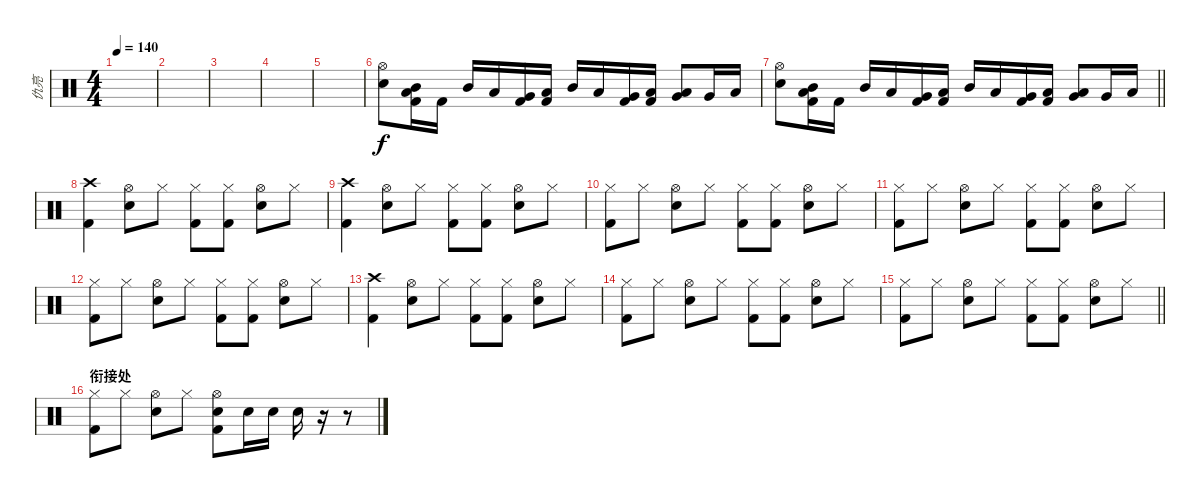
\track ("仇亮" "仇亮") {instrument percussion}
\staff {score}
\articulation defaults
\ts (4 4)
\tempo 140
\clef neutral
\ks c
|
|
|
|
|
("Hi-Hat (open)" "Electric Snare (hit)").8 ("Mid Tom (hit)" "Low Tom (hit)" "Kick (hit) 2").16 "Kick (hit) 2".16 "Mid Tom (hit)".16 "Low Tom (hit)".16 ("Very Low Tom (hit)" "Kick (hit) 2").16 ("Low Floor Tom (hit)" "Kick (hit) 2").16 "Mid Tom (hit)".16 "Low Tom (hit)".16 ("Very Low Tom (hit)" "Kick (hit) 2").16 ("Low Floor Tom (hit)" "Kick (hit) 2").16 ("Low Tom (hit)" "Very Low Tom (hit)").8 "Very Low Tom (hit)".16 "Low Floor Tom (hit)".16 |
\barLineRight lightlight
("Hi-Hat (open)" "Electric Snare (hit)").8 ("Mid Tom (hit)" "Low Tom (hit)" "Kick (hit) 2").16 "Kick (hit) 2".16 "Mid Tom (hit)".16 "Low Tom (hit)".16 ("Very Low Tom (hit)" "Kick (hit) 2").16 ("Low Floor Tom (hit)" "Kick (hit) 2").16 "Mid Tom (hit)".16 "Low Tom (hit)".16 ("Very Low Tom (hit)" "Kick (hit) 2").16 ("Low Floor Tom (hit)" "Kick (hit) 2").16 ("Low Tom (hit)" "Very Low Tom (hit)").8 "Very Low Tom (hit)".16 "Low Floor Tom (hit)".16 |
("Crash high (hit)" "Kick (hit) 2").4 ("Hi-Hat (open)" "Electric Snare (hit)").8 "Hi-Hat (closed)".8 ("Hi-Hat (closed)" "Kick (hit) 2").8 ("Hi-Hat (closed)" "Kick (hit) 2").8 ("Hi-Hat (open)" "Electric Snare (hit)").8 "Hi-Hat (closed)".8 |
("Crash high (hit)" "Kick (hit) 2").4 ("Hi-Hat (open)" "Electric Snare (hit)").8 "Hi-Hat (closed)".8 ("Hi-Hat (closed)" "Kick (hit) 2").8 ("Hi-Hat (closed)" "Kick (hit) 2").8 ("Hi-Hat (open)" "Electric Snare (hit)").8 "Hi-Hat (closed)".8 |
("Hi-Hat (closed)" "Kick (hit) 2").8 "Hi-Hat (closed)".8 ("Hi-Hat (open)" "Electric Snare (hit)").8 "Hi-Hat (closed)".8 ("Hi-Hat (closed)" "Kick (hit) 2").8 ("Hi-Hat (closed)" "Kick (hit) 2").8 ("Hi-Hat (open)" "Electric Snare (hit)").8 "Hi-Hat (closed)".8 |
("Hi-Hat (closed)" "Kick (hit) 2").8 "Hi-Hat (closed)".8 ("Hi-Hat (open)" "Electric Snare (hit)").8 "Hi-Hat (closed)".8 ("Hi-Hat (closed)" "Kick (hit) 2").8 ("Hi-Hat (closed)" "Kick (hit) 2").8 ("Hi-Hat (open)" "Electric Snare (hit)").8 "Hi-Hat (closed)".8 |
("Hi-Hat (closed)" "Kick (hit) 2").8 "Hi-Hat (closed)".8 ("Hi-Hat (open)" "Electric Snare (hit)").8 "Hi-Hat (closed)".8 ("Hi-Hat (closed)" "Kick (hit) 2").8 ("Hi-Hat (closed)" "Kick (hit) 2").8 ("Hi-Hat (open)" "Electric Snare (hit)").8 "Hi-Hat (closed)".8 |
("Crash high (hit)" "Kick (hit) 2").4 ("Hi-Hat (open)" "Electric Snare (hit)").8 "Hi-Hat (closed)".8 ("Hi-Hat (closed)" "Kick (hit) 2").8 ("Hi-Hat (closed)" "Kick (hit) 2").8 ("Hi-Hat (open)" "Electric Snare (hit)").8 "Hi-Hat (closed)".8 |
("Hi-Hat (closed)" "Kick (hit) 2").8 "Hi-Hat (closed)".8 ("Hi-Hat (open)" "Electric Snare (hit)").8 "Hi-Hat (closed)".8 ("Hi-Hat (closed)" "Kick (hit) 2").8 ("Hi-Hat (closed)" "Kick (hit) 2").8 ("Hi-Hat (open)" "Electric Snare (hit)").8 "Hi-Hat (closed)".8 |
\barLineRight lightlight
("Hi-Hat (closed)" "Kick (hit) 2").8 "Hi-Hat (closed)".8 ("Hi-Hat (open)" "Electric Snare (hit)").8 "Hi-Hat (closed)".8 ("Hi-Hat (closed)" "Kick (hit) 2").8 ("Hi-Hat (closed)" "Kick (hit) 2").8 ("Hi-Hat (open)" "Electric Snare (hit)").8 "Hi-Hat (closed)".8 |
\section ("" "衔接处")
("Hi-Hat (closed)" "Kick (hit) 2").8 "Hi-Hat (closed)".8 ("Hi-Hat (open)" "Electric Snare (hit)").8 "Hi-Hat (closed)".8 ("Hi-Hat (open)" "Electric Snare (hit)" "Kick (hit) 2").8 "Electric Snare (hit)".16 "Electric Snare (hit)".16 "Electric Snare (hit)".16 r.16 r.8
